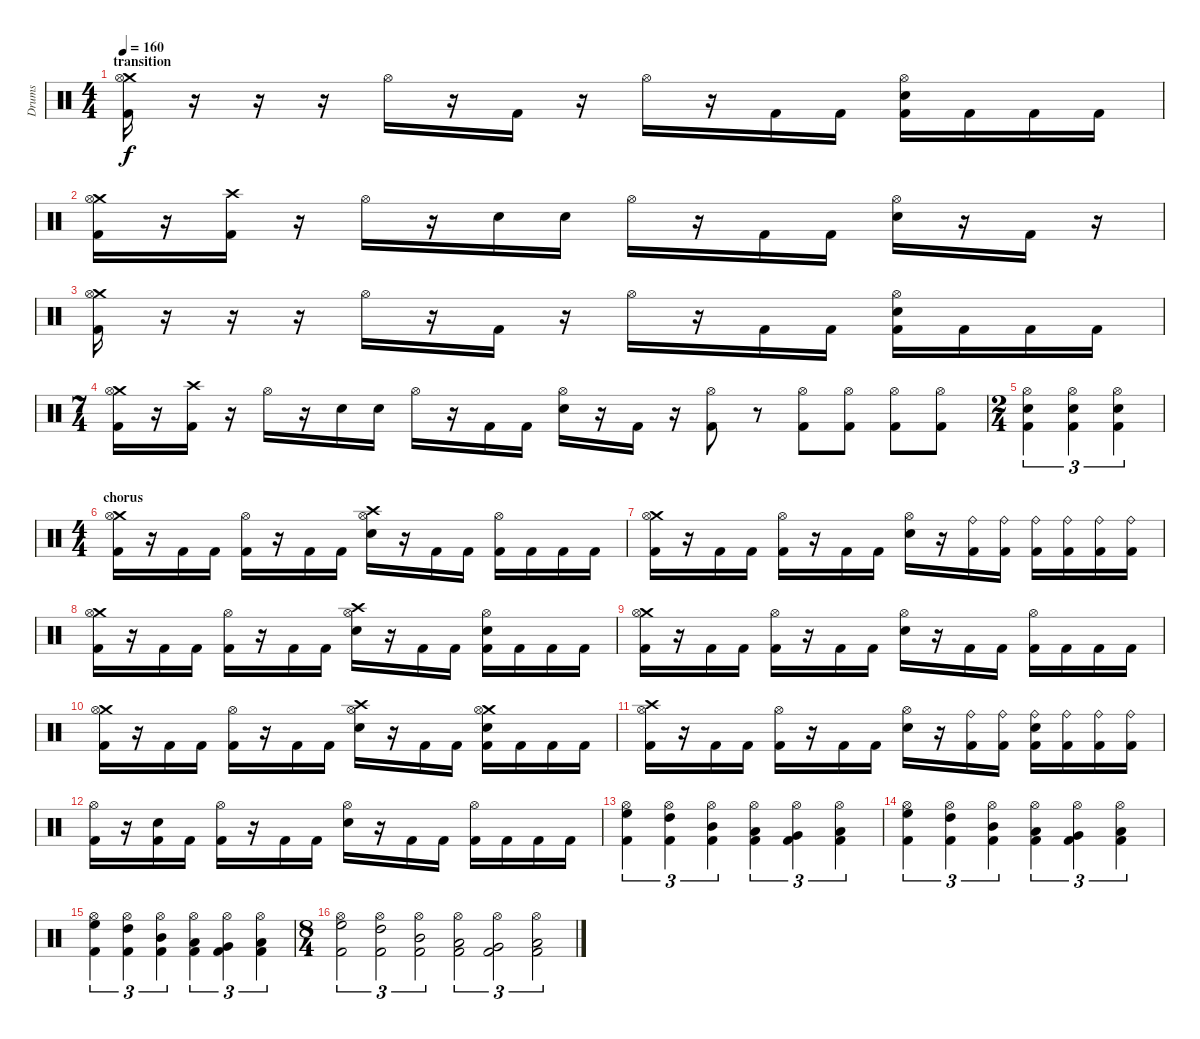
\track ("Drums" "Drums") {instrument percussion}
\staff {score}
\articulation defaults
\ts (4 4)
\section ("" "transition")
\tempo 160
\clef neutral
\ks c
("Crash medium (hit)" "Hi-Hat (open)" "Kick (hit) 2").16{dy f} r.16 r.16 r.16 "Hi-Hat (open)".16 r.16 "Kick (hit) 2".16 r.16 "Hi-Hat (open)".16 r.16 "Kick (hit) 2".16 "Kick (hit) 2".16 ("Hi-Hat (open)" "Electric Snare (hit)" "Kick (hit) 2").16 "Kick (hit) 2".16 "Kick (hit) 2".16 "Kick (hit) 2".16 |
("Crash medium (hit)" "Hi-Hat (open)" "Kick (hit) 2").16 r.16 ("Crash high (hit)" "Kick (hit) 2").16 r.16 "Hi-Hat (open)".16 r.16 "Electric Snare (hit)".16 "Electric Snare (hit)".16 "Hi-Hat (open)".16 r.16 "Kick (hit) 2".16 "Kick (hit) 2".16 ("Hi-Hat (open)" "Electric Snare (hit)").16 r.16 "Kick (hit) 2".16 r.16 |
("Crash medium (hit)" "Hi-Hat (open)" "Kick (hit) 2").16 r.16 r.16 r.16 "Hi-Hat (open)".16 r.16 "Kick (hit) 2".16 r.16 "Hi-Hat (open)".16 r.16 "Kick (hit) 2".16 "Kick (hit) 2".16 ("Hi-Hat (open)" "Electric Snare (hit)" "Kick (hit) 2").16 "Kick (hit) 2".16 "Kick (hit) 2".16 "Kick (hit) 2".16 |
\ts (7 4)
("Crash medium (hit)" "Hi-Hat (open)" "Kick (hit) 2").16 r.16 ("Crash high (hit)" "Kick (hit) 2").16 r.16 "Hi-Hat (open)".16 r.16 "Electric Snare (hit)".16 "Electric Snare (hit)".16 "Hi-Hat (open)".16 r.16 "Kick (hit) 2".16 "Kick (hit) 2".16 ("Hi-Hat (open)" "Electric Snare (hit)").16 r.16 "Kick (hit) 2".16 r.16 ("Hi-Hat (open)" "Kick (hit) 2").8 r.8 ("Hi-Hat (open)" "Kick (hit) 2").8 ("Hi-Hat (open)" "Kick (hit) 2").8 ("Hi-Hat (open)" "Kick (hit) 2").8 ("Hi-Hat (open)" "Kick (hit) 2").8 |
\ts (2 4)
("Electric Snare (hit)" "Hi-Hat (open)" "Kick (hit) 2").4{tu (3 2)} ("Electric Snare (hit)" "Hi-Hat (open)" "Kick (hit) 2").4{tu (3 2)} ("Electric Snare (hit)" "Hi-Hat (open)" "Kick (hit) 2").4{tu (3 2)} |
\ts (4 4)
\section ("" "chorus")
("Crash medium (hit)" "Hi-Hat (open)" "Kick (hit) 2").16 r.16 "Kick (hit) 2".16 "Kick (hit) 2".16 ("Hi-Hat (open)" "Kick (hit) 2").16 r.16 "Kick (hit) 2".16 "Kick (hit) 2".16 ("Crash high (hit)" "Hi-Hat (open)" "Electric Snare (hit)").16 r.16 "Kick (hit) 2".16 "Kick (hit) 2".16 ("Hi-Hat (open)" "Kick (hit) 2").16 "Kick (hit) 2".16 "Kick (hit) 2".16 "Kick (hit) 2".16 |
("Crash medium (hit)" "Hi-Hat (open)" "Kick (hit) 2").16 r.16 "Kick (hit) 2".16 "Kick (hit) 2".16 ("Hi-Hat (open)" "Kick (hit) 2").16 r.16 "Kick (hit) 2".16 "Kick (hit) 2".16 ("Hi-Hat (open)" "Electric Snare (hit)").16 r.16 ("Ride (bell)" "Kick (hit) 2").16 ("Ride (bell)" "Kick (hit) 2").16 ("Ride (bell)" "Kick (hit) 2").16 ("Ride (bell)" "Kick (hit) 2").16 ("Ride (bell)" "Kick (hit) 2").16 ("Ride (bell)" "Kick (hit) 2").16 |
("Crash medium (hit)" "Hi-Hat (open)" "Kick (hit) 2").16 r.16 "Kick (hit) 2".16 "Kick (hit) 2".16 ("Hi-Hat (open)" "Kick (hit) 2").16 r.16 "Kick (hit) 2".16 "Kick (hit) 2".16 ("Crash high (hit)" "Hi-Hat (open)" "Electric Snare (hit)").16 r.16 "Kick (hit) 2".16 "Kick (hit) 2".16 ("Hi-Hat (open)" "Electric Snare (hit)" "Kick (hit) 2").16 "Kick (hit) 2".16 "Kick (hit) 2".16 "Kick (hit) 2".16 |
("Crash medium (hit)" "Hi-Hat (open)" "Kick (hit) 2").16 r.16 "Kick (hit) 2".16 "Kick (hit) 2".16 ("Hi-Hat (open)" "Kick (hit) 2").16 r.16 "Kick (hit) 2".16 "Kick (hit) 2".16 ("Hi-Hat (open)" "Electric Snare (hit)").16 r.16 "Kick (hit) 2".16 "Kick (hit) 2".16 ("Hi-Hat (open)" "Kick (hit) 2").16 "Kick (hit) 2".16 "Kick (hit) 2".16 "Kick (hit) 2".16 |
("Crash medium (hit)" "Hi-Hat (open)" "Kick (hit) 2").16 r.16 "Kick (hit) 2".16 "Kick (hit) 2".16 ("Hi-Hat (open)" "Kick (hit) 2").16 r.16 "Kick (hit) 2".16 "Kick (hit) 2".16 ("Crash high (hit)" "Hi-Hat (open)" "Electric Snare (hit)").16 r.16 "Kick (hit) 2".16 "Kick (hit) 2".16 ("Crash medium (hit)" "Hi-Hat (open)" "Electric Snare (hit)" "Kick (hit) 2").16 "Kick (hit) 2".16 "Kick (hit) 2".16 "Kick (hit) 2".16 |
("Crash high (hit)" "Hi-Hat (open)" "Kick (hit) 2").16 r.16 "Kick (hit) 2".16 "Kick (hit) 2".16 ("Hi-Hat (open)" "Kick (hit) 2").16 r.16 "Kick (hit) 2".16 "Kick (hit) 2".16 ("Hi-Hat (open)" "Electric Snare (hit)").16 r.16 ("Ride (bell)" "Kick (hit) 2").16 ("Ride (bell)" "Kick (hit) 2").16 ("Ride (bell)" "Electric Snare (hit)" "Kick (hit) 2").16 ("Ride (bell)" "Kick (hit) 2").16 ("Ride (bell)" "Kick (hit) 2").16 ("Ride (bell)" "Kick (hit) 2").16 |
("Hi-Hat (open)" "Kick (hit) 2").16 r.16 ("Electric Snare (hit)" "Kick (hit) 2").16 "Kick (hit) 2".16 ("Hi-Hat (open)" "Kick (hit) 2").16 r.16 "Kick (hit) 2".16 "Kick (hit) 2".16 ("Hi-Hat (open)" "Electric Snare (hit)").16 r.16 "Kick (hit) 2".16 "Kick (hit) 2".16 ("Hi-Hat (open)" "Kick (hit) 2").16 "Kick (hit) 2".16 "Kick (hit) 2".16 "Kick (hit) 2".16 |
("Hi-Hat (open)" "High Floor Tom (hit)" "Kick (hit) 2").4{tu (3 2)} ("Hi-Hat (open)" "High Tom (hit)" "Kick (hit) 2").4{tu (3 2)} ("Hi-Hat (open)" "Mid Tom (hit)" "Kick (hit) 2").4{tu (3 2)} ("Hi-Hat (open)" "Low Tom (hit)" "Kick (hit) 2").4{tu (3 2)} ("Hi-Hat (open)" "Very Low Tom (hit)" "Kick (hit) 2").4{tu (3 2)} ("Hi-Hat (open)" "Low Floor Tom (hit)" "Kick (hit) 2").4{tu (3 2)} |
("Hi-Hat (open)" "High Floor Tom (hit)" "Kick (hit) 2").4{tu (3 2)} ("Hi-Hat (open)" "High Tom (hit)" "Kick (hit) 2").4{tu (3 2)} ("Hi-Hat (open)" "Mid Tom (hit)" "Kick (hit) 2").4{tu (3 2)} ("Hi-Hat (open)" "Low Tom (hit)" "Kick (hit) 2").4{tu (3 2)} ("Hi-Hat (open)" "Very Low Tom (hit)" "Kick (hit) 2").4{tu (3 2)} ("Hi-Hat (open)" "Low Floor Tom (hit)" "Kick (hit) 2").4{tu (3 2)} |
("Hi-Hat (open)" "High Floor Tom (hit)" "Kick (hit) 2").4{tu (3 2)} ("Hi-Hat (open)" "High Tom (hit)" "Kick (hit) 2").4{tu (3 2)} ("Hi-Hat (open)" "Mid Tom (hit)" "Kick (hit) 2").4{tu (3 2)} ("Hi-Hat (open)" "Low Tom (hit)" "Kick (hit) 2").4{tu (3 2)} ("Hi-Hat (open)" "Very Low Tom (hit)" "Kick (hit) 2").4{tu (3 2)} ("Hi-Hat (open)" "Low Floor Tom (hit)" "Kick (hit) 2").4{tu (3 2)} |
\ts (8 4)
("Hi-Hat (open)" "High Floor Tom (hit)" "Kick (hit) 2").2{tu (3 2)} ("Hi-Hat (open)" "High Tom (hit)" "Kick (hit) 2").2{tu (3 2)} ("Hi-Hat (open)" "Mid Tom (hit)" "Kick (hit) 2").2{tu (3 2)} ("Hi-Hat (open)" "Low Tom (hit)" "Kick (hit) 2").2{tu (3 2)} ("Hi-Hat (open)" "Very Low Tom (hit)" "Kick (hit) 2").2{tu (3 2)} ("Hi-Hat (open)" "Low Floor Tom (hit)" "Kick (hit) 2").2{tu (3 2)}
